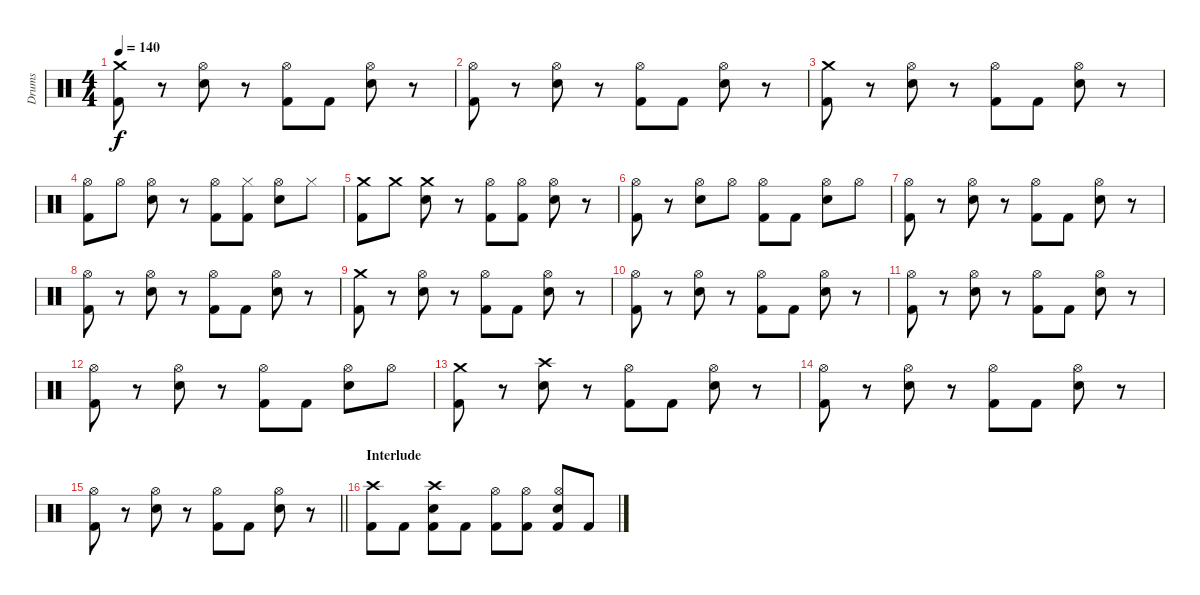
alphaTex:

\track ("Drums" "Drums") {instrument percussion}
\staff {score}
\articulation defaults
\ts (4 4)
\tempo 140
\clef neutral
\ks c
("Crash medium (hit)" "Kick (hit) 2").8{dy f} r.8 ("Hi-Hat (open)" "Snare (hit) 2").8 r.8 ("Hi-Hat (open)" "Kick (hit) 2").8 "Kick (hit) 2".8 ("Hi-Hat (open)" "Snare (hit) 2").8 r.8 |
("Hi-Hat (open)" "Kick (hit) 2").8 r.8 ("Hi-Hat (open)" "Snare (hit) 2").8 r.8 ("Hi-Hat (open)" "Kick (hit) 2").8 "Kick (hit) 2".8 ("Hi-Hat (open)" "Snare (hit) 2").8 r.8 |
("Crash medium (hit)" "Kick (hit) 2").8 r.8 ("Hi-Hat (open)" "Snare (hit) 2").8 r.8 ("Hi-Hat (open)" "Kick (hit) 2").8 "Kick (hit) 2".8 ("Hi-Hat (open)" "Snare (hit) 2").8 r.8 |
("Hi-Hat (open)" "Kick (hit) 2").8 "Hi-Hat (open)".8 ("Hi-Hat (open)" "Snare (hit) 2").8 r.8 ("Hi-Hat (open)" "Kick (hit) 2").8 ("Hi-Hat (closed)" "Kick (hit) 2").8 ("Hi-Hat (open)" "Snare (hit) 2").8 "Hi-Hat (closed)".8 |
("Crash medium (hit)" "Kick (hit) 2").8 "Crash medium (hit)".8 ("Crash medium (hit)" "Snare (hit) 2").8 r.8 ("Hi-Hat (open)" "Kick (hit) 2").8 ("Hi-Hat (open)" "Kick (hit) 2").8 ("Hi-Hat (open)" "Snare (hit) 2").8 r.8 |
("Hi-Hat (open)" "Kick (hit) 2").8 r.8 ("Hi-Hat (open)" "Snare (hit) 2").8 "Hi-Hat (open)".8 ("Hi-Hat (open)" "Kick (hit) 2").8 "Kick (hit) 2".8 ("Hi-Hat (open)" "Snare (hit) 2").8 "Hi-Hat (open)".8 |
("Hi-Hat (open)" "Kick (hit) 2").8 r.8 ("Hi-Hat (open)" "Snare (hit) 2").8 r.8 ("Hi-Hat (open)" "Kick (hit) 2").8 "Kick (hit) 2".8 ("Hi-Hat (open)" "Snare (hit) 2").8 r.8 |
("Hi-Hat (open)" "Kick (hit) 2").8 r.8 ("Hi-Hat (open)" "Snare (hit) 2").8 r.8 ("Hi-Hat (open)" "Kick (hit) 2").8 "Kick (hit) 2".8 ("Hi-Hat (open)" "Snare (hit) 2").8 r.8 |
("Crash medium (hit)" "Kick (hit) 2").8 r.8 ("Hi-Hat (open)" "Snare (hit) 2").8 r.8 ("Hi-Hat (open)" "Kick (hit) 2").8 "Kick (hit) 2".8 ("Hi-Hat (open)" "Snare (hit) 2").8 r.8 |
("Hi-Hat (open)" "Kick (hit) 2").8 r.8 ("Hi-Hat (open)" "Snare (hit) 2").8 r.8 ("Hi-Hat (open)" "Kick (hit) 2").8 "Kick (hit) 2".8 ("Hi-Hat (open)" "Snare (hit) 2").8 r.8 |
("Hi-Hat (open)" "Kick (hit) 2").8 r.8 ("Hi-Hat (open)" "Snare (hit) 2").8 r.8 ("Hi-Hat (open)" "Kick (hit) 2").8 "Kick (hit) 2".8 ("Hi-Hat (open)" "Snare (hit) 2").8 r.8 |
("Hi-Hat (open)" "Kick (hit) 2").8 r.8 ("Hi-Hat (open)" "Snare (hit) 2").8 r.8 ("Hi-Hat (open)" "Kick (hit) 2").8 "Kick (hit) 2".8 ("Hi-Hat (open)" "Snare (hit) 2").8 "Hi-Hat (open)".8 |
("Crash medium (hit)" "Kick (hit) 2").8 r.8 ("Crash high (hit)" "Snare (hit) 2").8 r.8 ("Hi-Hat (open)" "Kick (hit) 2").8 "Kick (hit) 2".8 ("Hi-Hat (open)" "Snare (hit) 2").8 r.8 |
("Hi-Hat (open)" "Kick (hit) 2").8 r.8 ("Hi-Hat (open)" "Snare (hit) 2").8 r.8 ("Hi-Hat (open)" "Kick (hit) 2").8 "Kick (hit) 2".8 ("Hi-Hat (open)" "Snare (hit) 2").8 r.8 |
\barLineRight lightlight
("Hi-Hat (open)" "Kick (hit) 2").8 r.8 ("Hi-Hat (open)" "Snare (hit) 2").8 r.8 ("Hi-Hat (open)" "Kick (hit) 2").8 "Kick (hit) 2".8 ("Hi-Hat (open)" "Snare (hit) 2").8 r.8 |
\section ("" "Interlude")
("Crash high (hit)" "Kick (hit) 2").8 "Kick (hit) 2".8 ("Crash high (hit)" "Snare (hit) 2" "Kick (hit) 2").8 "Kick (hit) 2".8 ("Hi-Hat (open)" "Kick (hit) 2").8 ("Hi-Hat (open)" "Kick (hit) 2").8 ("Hi-Hat (open)" "Snare (hit) 2" "Kick (hit) 2").8 "Kick (hit) 2".8
